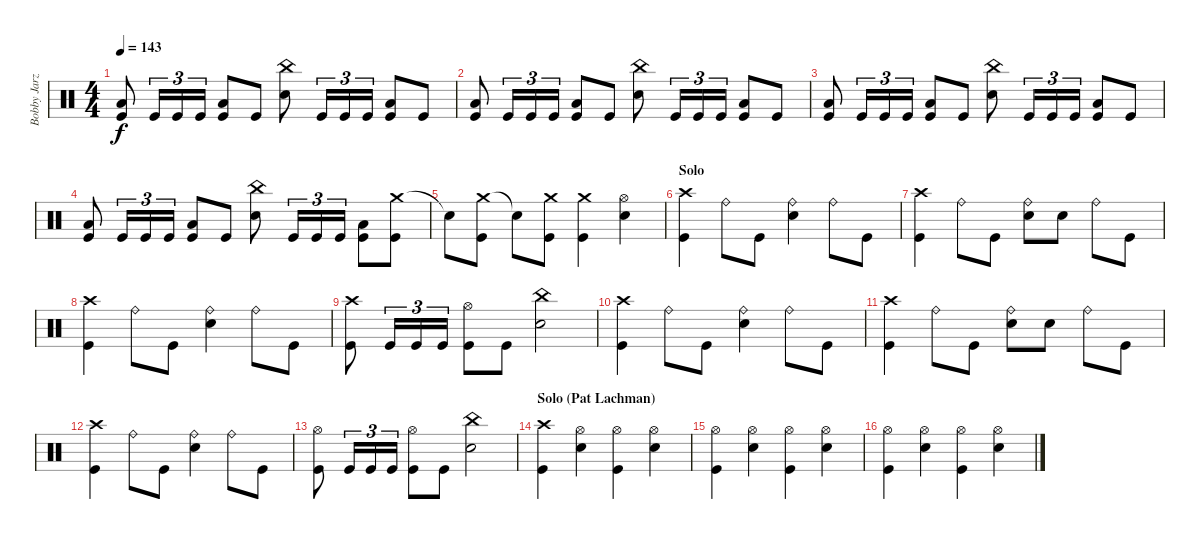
\track ("Bobby Jarzombek" "Bobby Jarz") {instrument percussion}
\staff {score}
\articulation defaults
\ts (4 4)
\tempo 143
\clef neutral
\ks c
("Low Tom (hit)" "Kick (hit)").8{dy f} "Kick (hit)".16{tu (3 2)} "Kick (hit)".16{tu (3 2)} "Kick (hit)".16{tu (3 2)} ("Low Tom (hit)" "Kick (hit)").8 "Kick (hit)".8 ("China (hit)" "Electric Snare (hit)").8 "Kick (hit)".16{tu (3 2)} "Kick (hit)".16{tu (3 2)} "Kick (hit)".16{tu (3 2)} ("Low Tom (hit)" "Kick (hit)").8 "Kick (hit)".8 |
("Low Tom (hit)" "Kick (hit)").8 "Kick (hit)".16{tu (3 2)} "Kick (hit)".16{tu (3 2)} "Kick (hit)".16{tu (3 2)} ("Low Tom (hit)" "Kick (hit)").8 "Kick (hit)".8 ("China (hit)" "Electric Snare (hit)").8 "Kick (hit)".16{tu (3 2)} "Kick (hit)".16{tu (3 2)} "Kick (hit)".16{tu (3 2)} ("Low Tom (hit)" "Kick (hit)").8 "Kick (hit)".8 |
("Low Tom (hit)" "Kick (hit)").8 "Kick (hit)".16{tu (3 2)} "Kick (hit)".16{tu (3 2)} "Kick (hit)".16{tu (3 2)} ("Low Tom (hit)" "Kick (hit)").8 "Kick (hit)".8 ("China (hit)" "Electric Snare (hit)").8 "Kick (hit)".16{tu (3 2)} "Kick (hit)".16{tu (3 2)} "Kick (hit)".16{tu (3 2)} ("Low Tom (hit)" "Kick (hit)").8 "Kick (hit)".8 |
("Low Tom (hit)" "Kick (hit)").8 "Kick (hit)".16{tu (3 2)} "Kick (hit)".16{tu (3 2)} "Kick (hit)".16{tu (3 2)} ("Low Tom (hit)" "Kick (hit)").8 "Kick (hit)".8 ("China (hit)" "Electric Snare (hit)").8 "Kick (hit)".16{tu (3 2)} "Kick (hit)".16{tu (3 2)} "Kick (hit)".16{tu (3 2)} ("Low Tom (hit)" "Kick (hit)").8 ("Crash medium (hit)" "Kick (hit)").8 |
"Snare (hit)"{t}.8{volume 0} ("Crash medium (hit)" "Kick (hit)").8{volume 13} "Snare (hit)"{t}.8{volume 0} ("Crash medium (hit)" "Kick (hit)").8{volume 13} ("Crash medium (hit)" "Kick (hit)").4 ("Hi-Hat (open)" "Electric Snare (hit)").4{volume 13} |
\section ("" "Solo")
("Crash high (hit)" "Kick (hit)").4 "Ride (bell)".8 "Kick (hit)".8 ("Ride (bell)" "Electric Snare (hit)").4 "Ride (bell)".8 "Kick (hit)".8 |
("Crash high (hit)" "Kick (hit)").4 "Ride (bell)".8 "Kick (hit)".8 ("Ride (bell)" "Electric Snare (hit)").8 "Electric Snare (hit)".8 "Ride (bell)".8 "Kick (hit)".8 |
("Crash high (hit)" "Kick (hit)").4 "Ride (bell)".8 "Kick (hit)".8 ("Ride (bell)" "Electric Snare (hit)").4 "Ride (bell)".8 "Kick (hit)".8 |
("Crash high (hit)" "Kick (hit)").8 "Kick (hit)".16{tu (3 2)} "Kick (hit)".16{tu (3 2)} "Kick (hit)".16{tu (3 2)} ("Hi-Hat (open)" "Kick (hit)").8 "Kick (hit)".8 ("China (hit)" "Electric Snare (hit)").2 |
("Crash high (hit)" "Kick (hit)").4 "Ride (bell)".8 "Kick (hit)".8 ("Ride (bell)" "Electric Snare (hit)").4 "Ride (bell)".8 "Kick (hit)".8 |
("Crash high (hit)" "Kick (hit)").4 "Ride (bell)".8 "Kick (hit)".8 ("Ride (bell)" "Electric Snare (hit)").8 "Electric Snare (hit)".8 "Ride (bell)".8 "Kick (hit)".8 |
("Crash high (hit)" "Kick (hit)").4 "Ride (bell)".8 "Kick (hit)".8 ("Ride (bell)" "Electric Snare (hit)").4 "Ride (bell)".8 "Kick (hit)".8 |
("Hi-Hat (open)" "Kick (hit)").8 "Kick (hit)".16{tu (3 2)} "Kick (hit)".16{tu (3 2)} "Kick (hit)".16{tu (3 2)} ("Hi-Hat (open)" "Kick (hit)").8 "Kick (hit)".8 ("China (hit)" "Electric Snare (hit)").2 |
\section ("" "Solo (Pat Lachman)")
("Crash high (hit)" "Kick (hit)").4 ("Hi-Hat (open)" "Electric Snare (hit)").4 ("Hi-Hat (open)" "Kick (hit)").4 ("Hi-Hat (open)" "Electric Snare (hit)").4 |
("Hi-Hat (open)" "Kick (hit)").4 ("Hi-Hat (open)" "Electric Snare (hit)").4 ("Hi-Hat (open)" "Kick (hit)").4 ("Hi-Hat (open)" "Electric Snare (hit)").4 |
("Hi-Hat (open)" "Kick (hit)").4 ("Hi-Hat (open)" "Electric Snare (hit)").4 ("Hi-Hat (open)" "Kick (hit)").4 ("Hi-Hat (open)" "Electric Snare (hit)").4
